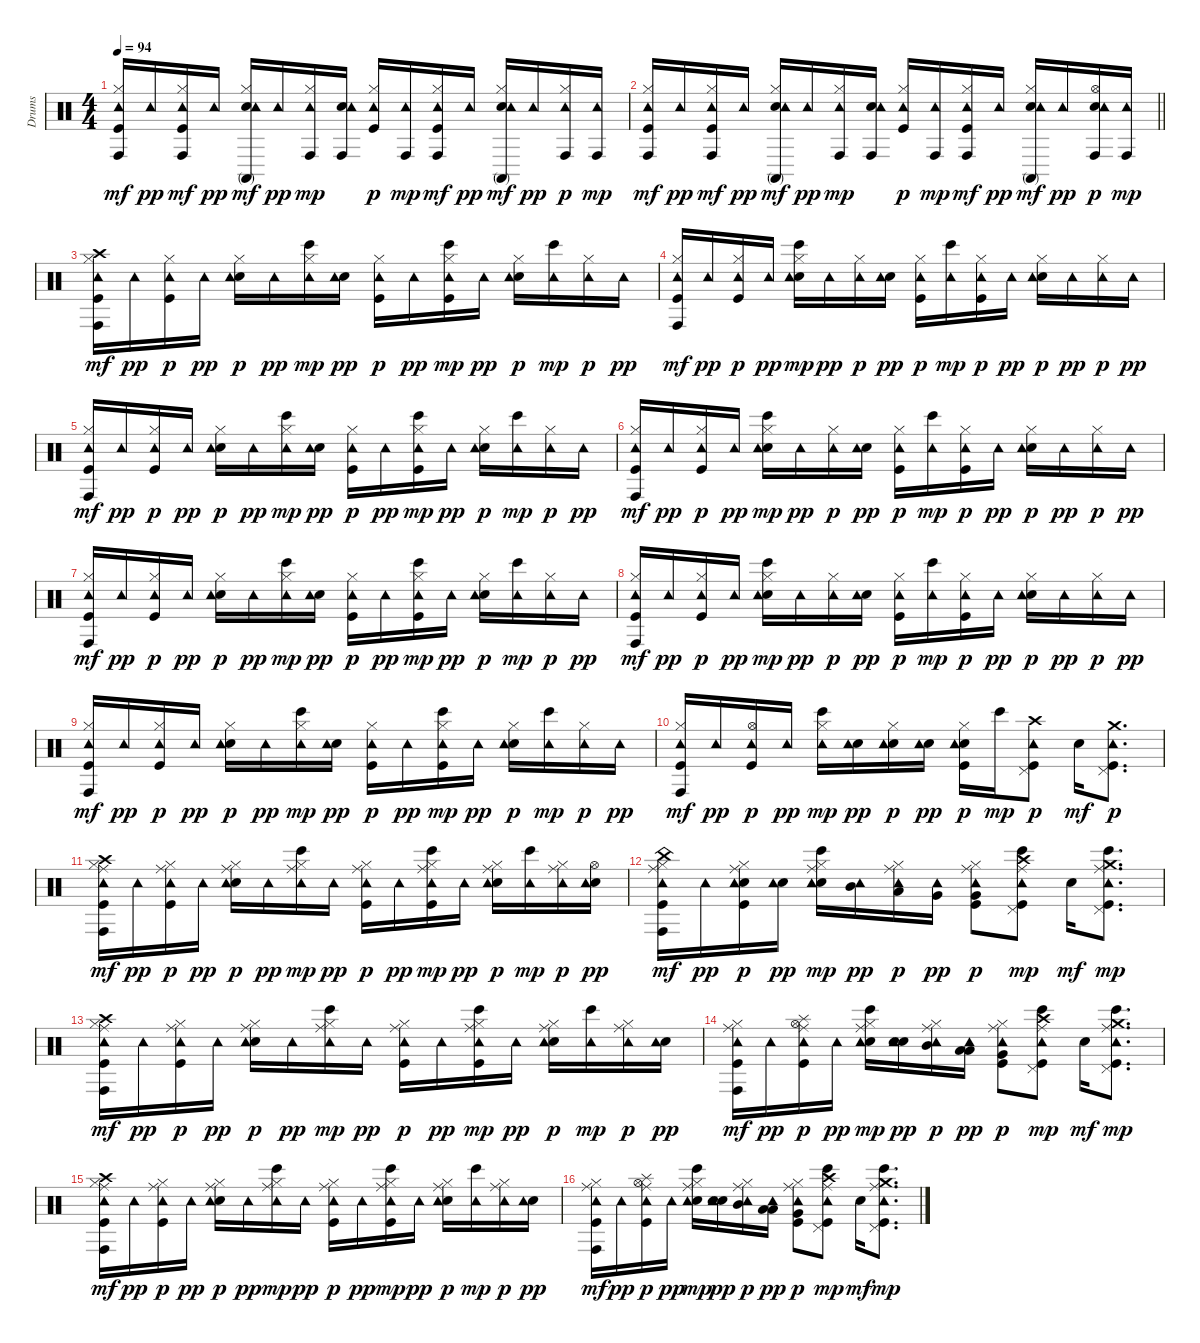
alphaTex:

\track ("Drums" "Drums") {instrument percussion}
\staff {score}
\articulation defaults
\ts (4 4)
\tempo 94
\clef neutral
\ks c
("Kick (hit)" "Hi-Hat (closed)" "Tambourine (hit)" "Conga high (hit)").16{dy mf} "Tambourine (hit)".16{dy pp} ("Kick (hit)" "Hi-Hat (closed)" "Tambourine (hit)" "Conga high (hit)").16{dy mf} "Tambourine (hit)".16{dy pp} ("Electric Snare (hit)" "Hi-Hat (closed)" "Tambourine (hit)" "Conga high (mute)").16{dy mf} "Tambourine (hit)".16{dy pp} ("Hi-Hat (closed)" "Tambourine (hit)" "Conga high (hit)").16{dy mp} ("Electric Snare (hit)" "Tambourine (hit)" "Conga high (hit)").16 ("Kick (hit)" "Hi-Hat (closed)" "Tambourine (hit)").16{dy p} ("Tambourine (hit)" "Conga high (hit)").16{dy mp} ("Kick (hit)" "Hi-Hat (closed)" "Tambourine (hit)" "Conga high (hit)").16{dy mf} "Tambourine (hit)".16{dy pp} ("Electric Snare (hit)" "Hi-Hat (closed)" "Tambourine (hit)" "Conga high (mute)").16{dy mf} "Tambourine (hit)".16{dy pp} ("Hi-Hat (closed)" "Tambourine (hit)" "Conga high (hit)").16{dy p} ("Tambourine (hit)" "Conga high (hit)").16{dy mp} |
\barLineRight lightlight
("Kick (hit)" "Hi-Hat (closed)" "Tambourine (hit)" "Conga high (hit)").16{dy mf} "Tambourine (hit)".16{dy pp} ("Kick (hit)" "Hi-Hat (closed)" "Tambourine (hit)" "Conga high (hit)").16{dy mf} "Tambourine (hit)".16{dy pp} ("Electric Snare (hit)" "Hi-Hat (closed)" "Tambourine (hit)" "Conga high (mute)").16{dy mf} "Tambourine (hit)".16{dy pp} ("Hi-Hat (closed)" "Tambourine (hit)" "Conga high (hit)").16{dy mp} ("Electric Snare (hit)" "Tambourine (hit)" "Conga high (hit)").16 ("Kick (hit)" "Hi-Hat (closed)" "Tambourine (hit)").16{dy p} ("Tambourine (hit)" "Conga high (hit)").16{dy mp} ("Kick (hit)" "Hi-Hat (closed)" "Tambourine (hit)" "Conga high (hit)").16{dy mf} "Tambourine (hit)".16{dy pp} ("Electric Snare (hit)" "Hi-Hat (closed)" "Tambourine (hit)" "Conga high (mute)").16{dy mf} "Tambourine (hit)".16{dy pp} ("Electric Snare (hit)" "Hi-Hat (open)" "Tambourine (hit)" "Conga high (hit)").16{dy p} ("Tambourine (hit)" "Conga high (hit)").16{dy mp} |
("Kick (hit)" "Hi-Hat (closed)" "Crash high (hit)" "Tambourine (hit)" "Conga high (hit)").16{dy mf} "Tambourine (hit)".16{dy pp} ("Kick (hit)" "Hi-Hat (closed)" "Tambourine (hit)").16{dy p} "Tambourine (hit)".16{dy pp} ("Electric Snare (hit)" "Hi-Hat (closed)" "Tambourine (hit)").16{dy p} "Tambourine (hit)".16{dy pp} ("Hi-Hat (closed)" "Tambourine (hit)" "Bongo High (hit)").16{dy mp} ("Electric Snare (hit)" "Tambourine (hit)").16{dy pp} ("Kick (hit)" "Hi-Hat (closed)" "Tambourine (hit)").16{dy p} "Tambourine (hit)".16{dy pp} ("Kick (hit)" "Hi-Hat (closed)" "Tambourine (hit)" "Bongo High (hit)").16{dy mp} "Tambourine (hit)".16{dy pp} ("Electric Snare (hit)" "Hi-Hat (closed)" "Tambourine (hit)").16{dy p} ("Tambourine (hit)" "Bongo High (hit)").16{dy mp} ("Hi-Hat (closed)" "Tambourine (hit)").16{dy p} "Tambourine (hit)".16{dy pp} |
("Kick (hit)" "Hi-Hat (closed)" "Tambourine (hit)" "Conga high (hit)").16{dy mf} "Tambourine (hit)".16{dy pp} ("Kick (hit)" "Hi-Hat (closed)" "Tambourine (hit)").16{dy p} "Tambourine (hit)".16{dy pp} ("Electric Snare (hit)" "Hi-Hat (closed)" "Tambourine (hit)" "Bongo High (hit)").16{dy mp} "Tambourine (hit)".16{dy pp} ("Hi-Hat (closed)" "Tambourine (hit)").16{dy p} ("Electric Snare (hit)" "Tambourine (hit)").16{dy pp} ("Kick (hit)" "Hi-Hat (closed)" "Tambourine (hit)").16{dy p} ("Tambourine (hit)" "Bongo High (hit)").16{dy mp} ("Kick (hit)" "Hi-Hat (closed)" "Tambourine (hit)").16{dy p} "Tambourine (hit)".16{dy pp} ("Electric Snare (hit)" "Hi-Hat (closed)" "Tambourine (hit)").16{dy p} "Tambourine (hit)".16{dy pp} ("Hi-Hat (closed)" "Tambourine (hit)").16{dy p} "Tambourine (hit)".16{dy pp} |
("Kick (hit)" "Hi-Hat (closed)" "Tambourine (hit)" "Conga high (hit)").16{dy mf} "Tambourine (hit)".16{dy pp} ("Kick (hit)" "Hi-Hat (closed)" "Tambourine (hit)").16{dy p} "Tambourine (hit)".16{dy pp} ("Electric Snare (hit)" "Hi-Hat (closed)" "Tambourine (hit)").16{dy p} "Tambourine (hit)".16{dy pp} ("Hi-Hat (closed)" "Tambourine (hit)" "Bongo High (hit)").16{dy mp} ("Electric Snare (hit)" "Tambourine (hit)").16{dy pp} ("Kick (hit)" "Hi-Hat (closed)" "Tambourine (hit)").16{dy p} "Tambourine (hit)".16{dy pp} ("Kick (hit)" "Hi-Hat (closed)" "Tambourine (hit)" "Bongo High (hit)").16{dy mp} "Tambourine (hit)".16{dy pp} ("Electric Snare (hit)" "Hi-Hat (closed)" "Tambourine (hit)").16{dy p} ("Tambourine (hit)" "Bongo High (hit)").16{dy mp} ("Hi-Hat (closed)" "Tambourine (hit)").16{dy p} "Tambourine (hit)".16{dy pp} |
("Kick (hit)" "Hi-Hat (closed)" "Tambourine (hit)" "Conga high (hit)").16{dy mf} "Tambourine (hit)".16{dy pp} ("Kick (hit)" "Hi-Hat (closed)" "Tambourine (hit)").16{dy p} "Tambourine (hit)".16{dy pp} ("Electric Snare (hit)" "Hi-Hat (closed)" "Tambourine (hit)" "Bongo High (hit)").16{dy mp} "Tambourine (hit)".16{dy pp} ("Hi-Hat (closed)" "Tambourine (hit)").16{dy p} ("Electric Snare (hit)" "Tambourine (hit)").16{dy pp} ("Kick (hit)" "Hi-Hat (closed)" "Tambourine (hit)").16{dy p} ("Tambourine (hit)" "Bongo High (hit)").16{dy mp} ("Kick (hit)" "Hi-Hat (closed)" "Tambourine (hit)").16{dy p} "Tambourine (hit)".16{dy pp} ("Electric Snare (hit)" "Hi-Hat (closed)" "Tambourine (hit)").16{dy p} "Tambourine (hit)".16{dy pp} ("Hi-Hat (closed)" "Tambourine (hit)").16{dy p} "Tambourine (hit)".16{dy pp} |
("Kick (hit)" "Hi-Hat (closed)" "Tambourine (hit)" "Conga high (hit)").16{dy mf} "Tambourine (hit)".16{dy pp} ("Kick (hit)" "Hi-Hat (closed)" "Tambourine (hit)").16{dy p} "Tambourine (hit)".16{dy pp} ("Electric Snare (hit)" "Hi-Hat (closed)" "Tambourine (hit)").16{dy p} "Tambourine (hit)".16{dy pp} ("Hi-Hat (closed)" "Tambourine (hit)" "Bongo High (hit)").16{dy mp} ("Electric Snare (hit)" "Tambourine (hit)").16{dy pp} ("Kick (hit)" "Hi-Hat (closed)" "Tambourine (hit)").16{dy p} "Tambourine (hit)".16{dy pp} ("Kick (hit)" "Hi-Hat (closed)" "Tambourine (hit)" "Bongo High (hit)").16{dy mp} "Tambourine (hit)".16{dy pp} ("Electric Snare (hit)" "Hi-Hat (closed)" "Tambourine (hit)").16{dy p} ("Tambourine (hit)" "Bongo High (hit)").16{dy mp} ("Hi-Hat (closed)" "Tambourine (hit)").16{dy p} "Tambourine (hit)".16{dy pp} |
("Kick (hit)" "Hi-Hat (closed)" "Tambourine (hit)" "Conga high (hit)").16{dy mf} "Tambourine (hit)".16{dy pp} ("Kick (hit)" "Hi-Hat (closed)" "Tambourine (hit)").16{dy p} "Tambourine (hit)".16{dy pp} ("Electric Snare (hit)" "Hi-Hat (closed)" "Tambourine (hit)" "Bongo High (hit)").16{dy mp} "Tambourine (hit)".16{dy pp} ("Hi-Hat (closed)" "Tambourine (hit)").16{dy p} ("Electric Snare (hit)" "Tambourine (hit)").16{dy pp} ("Kick (hit)" "Hi-Hat (closed)" "Tambourine (hit)").16{dy p} ("Tambourine (hit)" "Bongo High (hit)").16{dy mp} ("Kick (hit)" "Hi-Hat (closed)" "Tambourine (hit)").16{dy p} "Tambourine (hit)".16{dy pp} ("Electric Snare (hit)" "Hi-Hat (closed)" "Tambourine (hit)").16{dy p} "Tambourine (hit)".16{dy pp} ("Hi-Hat (closed)" "Tambourine (hit)").16{dy p} "Tambourine (hit)".16{dy pp} |
("Kick (hit)" "Hi-Hat (closed)" "Tambourine (hit)" "Conga high (hit)").16{dy mf} "Tambourine (hit)".16{dy pp} ("Kick (hit)" "Hi-Hat (closed)" "Tambourine (hit)").16{dy p} "Tambourine (hit)".16{dy pp} ("Electric Snare (hit)" "Hi-Hat (closed)" "Tambourine (hit)").16{dy p} "Tambourine (hit)".16{dy pp} ("Hi-Hat (closed)" "Tambourine (hit)" "Bongo High (hit)").16{dy mp} ("Electric Snare (hit)" "Tambourine (hit)").16{dy pp} ("Kick (hit)" "Hi-Hat (closed)" "Tambourine (hit)").16{dy p} "Tambourine (hit)".16{dy pp} ("Kick (hit)" "Hi-Hat (closed)" "Tambourine (hit)" "Bongo High (hit)").16{dy mp} "Tambourine (hit)".16{dy pp} ("Electric Snare (hit)" "Hi-Hat (closed)" "Tambourine (hit)").16{dy p} ("Tambourine (hit)" "Bongo High (hit)").16{dy mp} ("Hi-Hat (closed)" "Tambourine (hit)").16{dy p} "Tambourine (hit)".16{dy pp} |
("Kick (hit)" "Hi-Hat (closed)" "Tambourine (hit)" "Conga high (hit)").16{dy mf} "Tambourine (hit)".16{dy pp} ("Kick (hit)" "Hi-Hat (open)" "Tambourine (hit)").16{dy p} "Tambourine (hit)".16{dy pp} ("Hi-Hat (closed)" "Tambourine (hit)" "Bongo High (hit)").16{dy mp} ("Electric Snare (hit)" "Tambourine (hit)").16{dy pp} ("Electric Snare (hit)" "Hi-Hat (closed)" "Tambourine (hit)").16{dy p} ("Electric Snare (hit)" "Tambourine (hit)").16{dy pp} ("Kick (hit)" "Electric Snare (hit)" "Hi-Hat (closed)" "Tambourine (hit)").16{dy p} "Bongo High (hit)".16{dy mp} ("Kick (hit)" "Pedal Hi-Hat (hit)" "Crash high (hit)" "Tambourine (hit)").8{dy p} "Electric Snare (hit)".16{dy mf} ("Kick (hit)" "Pedal Hi-Hat (hit)" "Tambourine (hit)" "Crash medium (hit)").8{d dy p} |
("Kick (hit)" "Hi-Hat (closed)" "Crash high (hit)" "Ride (middle)" "Tambourine (hit)" "Conga high (hit)").16{dy mf} "Tambourine (hit)".16{dy pp} ("Kick (hit)" "Hi-Hat (closed)" "Ride (middle)" "Tambourine (hit)").16{dy p} "Tambourine (hit)".16{dy pp} ("Electric Snare (hit)" "Hi-Hat (closed)" "Ride (middle)" "Tambourine (hit)").16{dy p} "Tambourine (hit)".16{dy pp} ("Hi-Hat (closed)" "Ride (middle)" "Tambourine (hit)" "Bongo High (hit)").16{dy mp} "Tambourine (hit)".16{dy pp} ("Kick (hit)" "Hi-Hat (closed)" "Ride (middle)" "Tambourine (hit)").16{dy p} "Tambourine (hit)".16{dy pp} ("Kick (hit)" "Hi-Hat (closed)" "Ride (middle)" "Tambourine (hit)" "Bongo High (hit)").16{dy mp} "Tambourine (hit)".16{dy pp} ("Electric Snare (hit)" "Hi-Hat (closed)" "Ride (middle)" "Tambourine (hit)").16{dy p} ("Tambourine (hit)" "Bongo High (hit)").16{dy mp} ("Hi-Hat (closed)" "Ride (middle)" "Tambourine (hit)").16{dy p} ("Electric Snare (hit)" "Hi-Hat (open)" "Tambourine (hit)").16{dy pp} |
("Kick (hit)" "Hi-Hat (closed)" "Ride (middle)" "China (hit)" "Tambourine (hit)" "Conga high (hit)").16{dy mf} "Tambourine (hit)".16{dy pp} ("Kick (hit)" "Electric Snare (hit)" "Hi-Hat (closed)" "Ride (middle)" "Tambourine (hit)").16{dy p} ("Electric Snare (hit)" "Tambourine (hit)").16{dy pp} ("Electric Snare (hit)" "Hi-Hat (closed)" "Ride (middle)" "Tambourine (hit)" "Bongo High (hit)").16{dy mp} ("Mid Tom (hit)" "Tambourine (hit)").16{dy pp} ("Hi-Hat (closed)" "Low Tom (hit)" "Ride (middle)" "Tambourine (hit)").16{dy p} ("Very Low Tom (hit)" "Tambourine (hit)").16{dy pp} ("Kick (hit)" "Hi-Hat (closed)" "Very Low Tom (hit)" "Ride (middle)" "Tambourine (hit)").8{dy p} ("Kick (hit)" "Pedal Hi-Hat (hit)" "Crash high (hit)" "Ride (middle)" "Tambourine (hit)" "Bongo High (hit)").8{dy mp} "Electric Snare (hit)".16{dy mf} ("Kick (hit)" "Pedal Hi-Hat (hit)" "Ride (middle)" "Tambourine (hit)" "Crash medium (hit)" "Bongo High (hit)").8{d dy mp} |
("Kick (hit)" "Hi-Hat (closed)" "Crash high (hit)" "Ride (middle)" "Tambourine (hit)" "Conga high (hit)").16{dy mf} "Tambourine (hit)".16{dy pp} ("Kick (hit)" "Hi-Hat (closed)" "Ride (middle)" "Tambourine (hit)").16{dy p} "Tambourine (hit)".16{dy pp} ("Electric Snare (hit)" "Hi-Hat (closed)" "Ride (middle)" "Tambourine (hit)").16{dy p} "Tambourine (hit)".16{dy pp} ("Hi-Hat (closed)" "Ride (middle)" "Tambourine (hit)" "Bongo High (hit)").16{dy mp} "Tambourine (hit)".16{dy pp} ("Kick (hit)" "Hi-Hat (closed)" "Ride (middle)" "Tambourine (hit)").16{dy p} "Tambourine (hit)".16{dy pp} ("Kick (hit)" "Hi-Hat (closed)" "Ride (middle)" "Tambourine (hit)" "Bongo High (hit)").16{dy mp} "Tambourine (hit)".16{dy pp} ("Electric Snare (hit)" "Hi-Hat (closed)" "Ride (middle)" "Tambourine (hit)").16{dy p} ("Tambourine (hit)" "Bongo High (hit)").16{dy mp} ("Hi-Hat (closed)" "Ride (middle)" "Tambourine (hit)").16{dy p} ("Electric Snare (hit)" "Tambourine (hit)").16{dy pp} |
("Kick (hit)" "Hi-Hat (closed)" "Ride (middle)" "Tambourine (hit)" "Conga high (hit)").16{dy mf} "Tambourine (hit)".16{dy pp} ("Kick (hit)" "Hi-Hat (open)" "Ride (middle)" "Tambourine (hit)" "Splash (hit)").16{dy p} "Tambourine (hit)".16{dy pp} ("Electric Snare (hit)" "Hi-Hat (closed)" "Ride (middle)" "Tambourine (hit)" "Bongo High (hit)").16{dy mp} ("Electric Snare (hit)" "Electric Snare (hit)" "Tambourine (hit)").16{dy pp} ("Hi-Hat (closed)" "Mid Tom (hit)" "Ride (middle)" "Tambourine (hit)").16{dy p} ("Low Tom (hit)" "Low Tom (hit)" "Tambourine (hit)").16{dy pp} ("Kick (hit)" "Hi-Hat (closed)" "Very Low Tom (hit)" "Ride (middle)" "Tambourine (hit)").8{dy p} ("Kick (hit)" "Pedal Hi-Hat (hit)" "Crash high (hit)" "Ride (middle)" "Tambourine (hit)" "Bongo High (hit)").8{dy mp} "Electric Snare (hit)".16{dy mf} ("Kick (hit)" "Pedal Hi-Hat (hit)" "Ride (middle)" "Tambourine (hit)" "Crash medium (hit)" "Bongo High (hit)").8{d dy mp} |
("Kick (hit)" "Hi-Hat (closed)" "Crash high (hit)" "Ride (middle)" "Tambourine (hit)" "Conga high (hit)").16{dy mf} "Tambourine (hit)".16{dy pp} ("Kick (hit)" "Hi-Hat (closed)" "Ride (middle)" "Tambourine (hit)").16{dy p} "Tambourine (hit)".16{dy pp} ("Electric Snare (hit)" "Hi-Hat (closed)" "Ride (middle)" "Tambourine (hit)").16{dy p} "Tambourine (hit)".16{dy pp} ("Hi-Hat (closed)" "Ride (middle)" "Tambourine (hit)" "Bongo High (hit)").16{dy mp} "Tambourine (hit)".16{dy pp} ("Kick (hit)" "Hi-Hat (closed)" "Ride (middle)" "Tambourine (hit)").16{dy p} "Tambourine (hit)".16{dy pp} ("Kick (hit)" "Hi-Hat (closed)" "Ride (middle)" "Tambourine (hit)" "Bongo High (hit)").16{dy mp} "Tambourine (hit)".16{dy pp} ("Electric Snare (hit)" "Hi-Hat (closed)" "Ride (middle)" "Tambourine (hit)").16{dy p} ("Tambourine (hit)" "Bongo High (hit)").16{dy mp} ("Hi-Hat (closed)" "Ride (middle)" "Tambourine (hit)").16{dy p} ("Electric Snare (hit)" "Tambourine (hit)").16{dy pp} |
("Kick (hit)" "Hi-Hat (closed)" "Ride (middle)" "Tambourine (hit)" "Conga high (hit)").16{dy mf} "Tambourine (hit)".16{dy pp} ("Kick (hit)" "Hi-Hat (open)" "Ride (middle)" "Tambourine (hit)" "Splash (hit)").16{dy p} "Tambourine (hit)".16{dy pp} ("Electric Snare (hit)" "Hi-Hat (closed)" "Ride (middle)" "Tambourine (hit)" "Bongo High (hit)").16{dy mp} ("Electric Snare (hit)" "Electric Snare (hit)" "Tambourine (hit)").16{dy pp} ("Hi-Hat (closed)" "Mid Tom (hit)" "Ride (middle)" "Tambourine (hit)").16{dy p} ("Low Tom (hit)" "Low Tom (hit)" "Tambourine (hit)").16{dy pp} ("Kick (hit)" "Hi-Hat (closed)" "Very Low Tom (hit)" "Ride (middle)" "Tambourine (hit)").8{dy p} ("Kick (hit)" "Pedal Hi-Hat (hit)" "Crash high (hit)" "Ride (middle)" "Tambourine (hit)" "Bongo High (hit)").8{dy mp} "Electric Snare (hit)".16{dy mf} ("Kick (hit)" "Pedal Hi-Hat (hit)" "Ride (middle)" "Tambourine (hit)" "Crash medium (hit)" "Bongo High (hit)").8{d dy mp}
